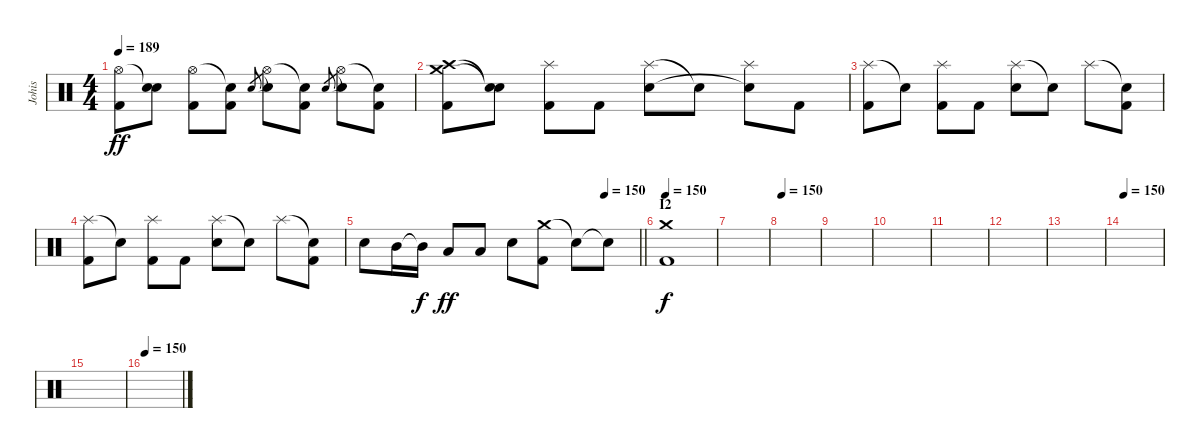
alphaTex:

\track ("Johis" "Johis") {instrument percussion}
\staff {score}
\articulation defaults
\ts (4 4)
\tempo 189
\clef neutral
\ks c
("Hi-Hat (open)" "Kick (hit) 2").8{dy ff} ("Snare (hit)"{t} "Electric Snare (hit)").8 ("Hi-Hat (open)" "Kick (hit) 2").8 ("Snare (hit)"{t} "Kick (hit) 2").8 "Electric Snare (hit)".8{gr} ("Hi-Hat (open)"{t} "Electric Snare (hit)").8 ("Snare (hit)"{t} "Kick (hit) 2").8 "Electric Snare (hit)".8{gr} ("Hi-Hat (open)"{t} "Electric Snare (hit)").8 ("Snare (hit)"{t} "Kick (hit) 2").8 |
("Crash high (hit)" "Crash medium (hit)" "Kick (hit) 2").8 ("Snare (hit)"{t} "Snare (hit)"{t}).8 ("Splash (hit)" "Kick (hit) 2").8 "Kick (hit) 2".8 ("Splash (hit)" "Electric Snare (hit)").8 "Snare (hit)"{t}.8 ("Splash (hit)" "Snare (hit)"{t}).8 "Kick (hit) 2".8 |
("Splash (hit)" "Kick (hit) 2").8 "Snare (hit)"{t}.8 ("Splash (hit)" "Kick (hit) 2").8 "Kick (hit) 2".8 ("Splash (hit)" "Electric Snare (hit)").8 "Snare (hit)"{t}.8 "Splash (hit)".8 ("Snare (hit)"{t} "Kick (hit) 2").8 |
("Splash (hit)" "Kick (hit) 2").8 "Snare (hit)"{t}.8 ("Splash (hit)" "Kick (hit) 2").8 "Kick (hit) 2".8 ("Splash (hit)" "Electric Snare (hit)").8 "Snare (hit)"{t}.8 "Splash (hit)".8 ("Snare (hit)"{t} "Kick (hit) 2").8 |
\tempo (150 0.875)
\barLineRight lightlight "Electric Snare (hit)".8 "Mid Tom (hit)".16 "Mid Tom (hit)"{t}.16{dy f} "Low Tom (hit)".8{dy ff} "Low Tom (hit)".8 "Electric Snare (hit)".8
("Crash medium (hit)" "Kick (hit) 2").8 "Snare (hit)"{t}.8 "Snare (hit)"{t}.8 |
\section ("" "I2")
\tempo 150
("Crash medium (hit)" "Kick (hit) 2").1{dy f} |
|
\tempo 150
|
|
|
|
|
|
\tempo 150
|
|
\tempo 150
